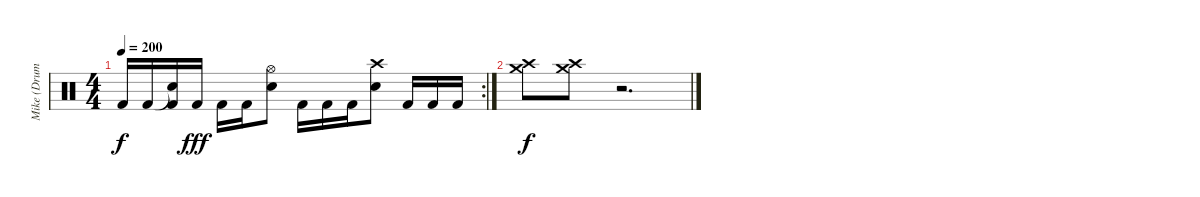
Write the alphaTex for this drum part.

\track ("Mike (Drums)" "Mike (Drum") {instrument percussion}
\staff {score}
\articulation defaults
\rc 2
\ts (4 4)
\tempo 200
\clef neutral
\ks c "Kick (hit) 2".16{dy f} "Kick (hit) 2".16
("Snare (hit)"{t} "Kick (hit) 2").16 "Kick (hit) 2".16{dy fff} "Kick (hit) 2".16 "Kick (hit) 2".16 ("Snare (hit) 2" "Hi-Hat (open)").8 "Kick (hit) 2".16 "Kick (hit) 2".16 "Kick (hit) 2".16 ("Snare (hit) 2" "Crash high (hit)").8 "Kick (hit) 2".16 "Kick (hit) 2".16 "Kick (hit) 2".16 |
("Crash high (hit)" "Crash medium (hit)").8{dy f} ("Crash high (hit)" "Crash medium (hit)").8 r.2{d}
